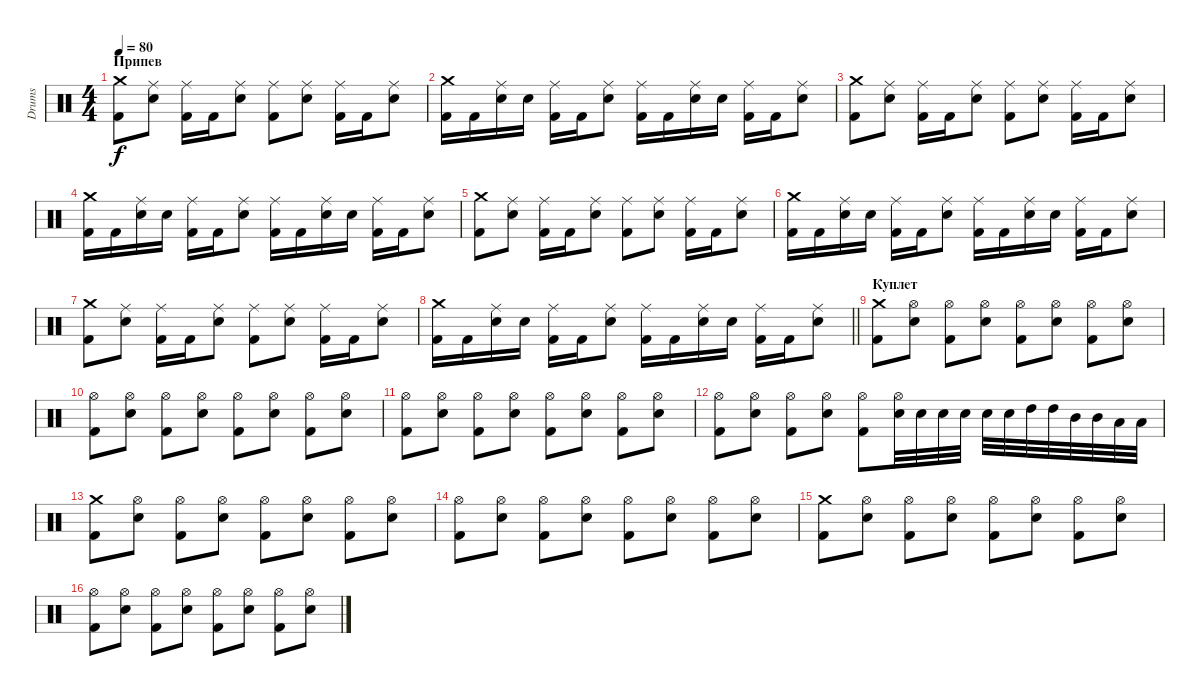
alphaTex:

\track ("Drums" "Drums") {instrument percussion}
\staff {score}
\articulation defaults
\ts (4 4)
\section ("" "Припев")
\tempo 80
\clef neutral
\ks c
("Crash medium (hit)" "Kick (hit) 2").8{dy f} ("Ride (middle)" "Snare (hit) 2").8 ("Ride (middle)" "Kick (hit) 2").16 "Kick (hit) 2".16 ("Ride (middle)" "Snare (hit) 2").8 ("Ride (middle)" "Kick (hit) 2").8 ("Ride (middle)" "Snare (hit) 2").8 ("Ride (middle)" "Kick (hit) 2").16 "Kick (hit) 2".16 ("Ride (middle)" "Snare (hit) 2").8 |
("Crash medium (hit)" "Kick (hit) 2").16 "Kick (hit) 2".16 ("Ride (middle)" "Snare (hit) 2").16 "Snare (hit) 2".16 ("Ride (middle)" "Kick (hit) 2").16 "Kick (hit) 2".16 ("Ride (middle)" "Snare (hit) 2").8 ("Ride (middle)" "Kick (hit) 2").16 "Kick (hit) 2".16 ("Ride (middle)" "Snare (hit) 2").16 "Snare (hit) 2".16 ("Ride (middle)" "Kick (hit) 2").16 "Kick (hit) 2".16 ("Ride (middle)" "Snare (hit) 2").8 |
("Crash medium (hit)" "Kick (hit) 2").8 ("Ride (middle)" "Snare (hit) 2").8 ("Ride (middle)" "Kick (hit) 2").16 "Kick (hit) 2".16 ("Ride (middle)" "Snare (hit) 2").8 ("Ride (middle)" "Kick (hit) 2").8 ("Ride (middle)" "Snare (hit) 2").8 ("Ride (middle)" "Kick (hit) 2").16 "Kick (hit) 2".16 ("Ride (middle)" "Snare (hit) 2").8 |
("Crash medium (hit)" "Kick (hit) 2").16 "Kick (hit) 2".16 ("Ride (middle)" "Snare (hit) 2").16 "Snare (hit) 2".16 ("Ride (middle)" "Kick (hit) 2").16 "Kick (hit) 2".16 ("Ride (middle)" "Snare (hit) 2").8 ("Ride (middle)" "Kick (hit) 2").16 "Kick (hit) 2".16 ("Ride (middle)" "Snare (hit) 2").16 "Snare (hit) 2".16 ("Ride (middle)" "Kick (hit) 2").16 "Kick (hit) 2".16 ("Ride (middle)" "Snare (hit) 2").8 |
("Crash medium (hit)" "Kick (hit) 2").8 ("Ride (middle)" "Snare (hit) 2").8 ("Ride (middle)" "Kick (hit) 2").16 "Kick (hit) 2".16 ("Ride (middle)" "Snare (hit) 2").8 ("Ride (middle)" "Kick (hit) 2").8 ("Ride (middle)" "Snare (hit) 2").8 ("Ride (middle)" "Kick (hit) 2").16 "Kick (hit) 2".16 ("Ride (middle)" "Snare (hit) 2").8 |
("Crash medium (hit)" "Kick (hit) 2").16 "Kick (hit) 2".16 ("Ride (middle)" "Snare (hit) 2").16 "Snare (hit) 2".16 ("Ride (middle)" "Kick (hit) 2").16 "Kick (hit) 2".16 ("Ride (middle)" "Snare (hit) 2").8 ("Ride (middle)" "Kick (hit) 2").16 "Kick (hit) 2".16 ("Ride (middle)" "Snare (hit) 2").16 "Snare (hit) 2".16 ("Ride (middle)" "Kick (hit) 2").16 "Kick (hit) 2".16 ("Ride (middle)" "Snare (hit) 2").8 |
("Crash medium (hit)" "Kick (hit) 2").8 ("Ride (middle)" "Snare (hit) 2").8 ("Ride (middle)" "Kick (hit) 2").16 "Kick (hit) 2".16 ("Ride (middle)" "Snare (hit) 2").8 ("Ride (middle)" "Kick (hit) 2").8 ("Ride (middle)" "Snare (hit) 2").8 ("Ride (middle)" "Kick (hit) 2").16 "Kick (hit) 2".16 ("Ride (middle)" "Snare (hit) 2").8 |
\barLineRight lightlight
("Crash medium (hit)" "Kick (hit) 2").16 "Kick (hit) 2".16 ("Ride (middle)" "Snare (hit) 2").16 "Snare (hit) 2".16 ("Ride (middle)" "Kick (hit) 2").16 "Kick (hit) 2".16 ("Ride (middle)" "Snare (hit) 2").8 ("Ride (middle)" "Kick (hit) 2").16 "Kick (hit) 2".16 ("Ride (middle)" "Snare (hit) 2").16 "Snare (hit) 2".16 ("Ride (middle)" "Kick (hit) 2").16 "Kick (hit) 2".16 ("Ride (middle)" "Snare (hit) 2").8 |
\section ("" "Куплет")
("Crash medium (hit)" "Kick (hit) 2").8 ("Hi-Hat (open)" "Snare (hit) 2").8 ("Hi-Hat (open)" "Kick (hit) 2").8 ("Hi-Hat (open)" "Snare (hit) 2").8 ("Hi-Hat (open)" "Kick (hit) 2").8 ("Hi-Hat (open)" "Snare (hit) 2").8 ("Hi-Hat (open)" "Kick (hit) 2").8 ("Hi-Hat (open)" "Snare (hit) 2").8 |
("Hi-Hat (open)" "Kick (hit) 2").8 ("Hi-Hat (open)" "Snare (hit) 2").8 ("Hi-Hat (open)" "Kick (hit) 2").8 ("Hi-Hat (open)" "Snare (hit) 2").8 ("Hi-Hat (open)" "Kick (hit) 2").8 ("Hi-Hat (open)" "Snare (hit) 2").8 ("Hi-Hat (open)" "Kick (hit) 2").8 ("Hi-Hat (open)" "Snare (hit) 2").8 |
("Hi-Hat (open)" "Kick (hit) 2").8 ("Hi-Hat (open)" "Snare (hit) 2").8 ("Hi-Hat (open)" "Kick (hit) 2").8 ("Hi-Hat (open)" "Snare (hit) 2").8 ("Hi-Hat (open)" "Kick (hit) 2").8 ("Hi-Hat (open)" "Snare (hit) 2").8 ("Hi-Hat (open)" "Kick (hit) 2").8 ("Hi-Hat (open)" "Snare (hit) 2").8 |
("Hi-Hat (open)" "Kick (hit) 2").8 ("Hi-Hat (open)" "Snare (hit) 2").8 ("Hi-Hat (open)" "Kick (hit) 2").8 ("Hi-Hat (open)" "Snare (hit) 2").8 ("Hi-Hat (open)" "Kick (hit) 2").8 ("Hi-Hat (open)" "Snare (hit) 2").32 "Snare (hit) 2".32 "Snare (hit) 2".32 "Snare (hit) 2".32 "Snare (hit) 2".32 "Snare (hit) 2".32 "High Tom (hit)".32 "High Tom (hit)".32 "Mid Tom (hit)".32 "Mid Tom (hit)".32 "Low Tom (hit)".32 "Low Tom (hit)".32 |
("Crash medium (hit)" "Kick (hit) 2").8 ("Hi-Hat (open)" "Snare (hit) 2").8 ("Hi-Hat (open)" "Kick (hit) 2").8 ("Hi-Hat (open)" "Snare (hit) 2").8 ("Hi-Hat (open)" "Kick (hit) 2").8 ("Hi-Hat (open)" "Snare (hit) 2").8 ("Hi-Hat (open)" "Kick (hit) 2").8 ("Hi-Hat (open)" "Snare (hit) 2").8 |
("Hi-Hat (open)" "Kick (hit) 2").8 ("Hi-Hat (open)" "Snare (hit) 2").8 ("Hi-Hat (open)" "Kick (hit) 2").8 ("Hi-Hat (open)" "Snare (hit) 2").8 ("Hi-Hat (open)" "Kick (hit) 2").8 ("Hi-Hat (open)" "Snare (hit) 2").8 ("Hi-Hat (open)" "Kick (hit) 2").8 ("Hi-Hat (open)" "Snare (hit) 2").8 |
("Crash medium (hit)" "Kick (hit) 2").8 ("Hi-Hat (open)" "Snare (hit) 2").8 ("Hi-Hat (open)" "Kick (hit) 2").8 ("Hi-Hat (open)" "Snare (hit) 2").8 ("Hi-Hat (open)" "Kick (hit) 2").8 ("Hi-Hat (open)" "Snare (hit) 2").8 ("Hi-Hat (open)" "Kick (hit) 2").8 ("Hi-Hat (open)" "Snare (hit) 2").8 |
("Hi-Hat (open)" "Kick (hit) 2").8 ("Hi-Hat (open)" "Snare (hit) 2").8 ("Hi-Hat (open)" "Kick (hit) 2").8 ("Hi-Hat (open)" "Snare (hit) 2").8 ("Hi-Hat (open)" "Kick (hit) 2").8 ("Hi-Hat (open)" "Snare (hit) 2").8 ("Hi-Hat (open)" "Kick (hit) 2").8 ("Hi-Hat (open)" "Snare (hit) 2").8
